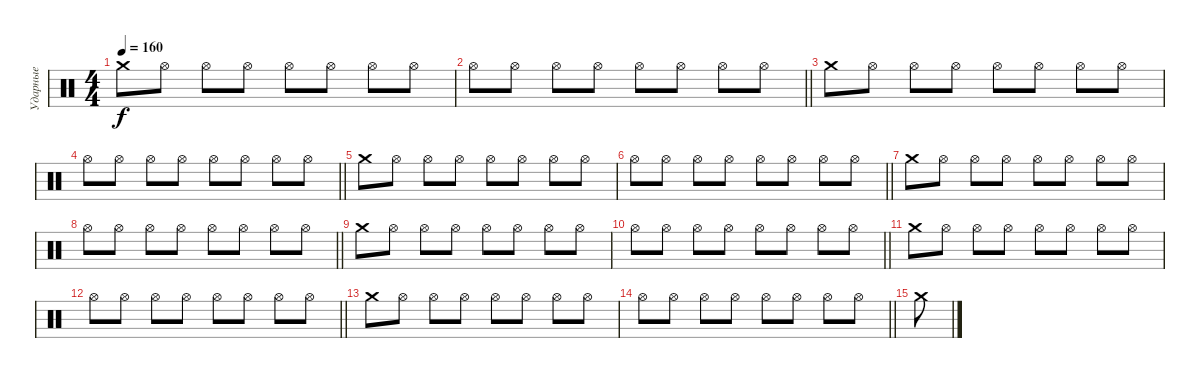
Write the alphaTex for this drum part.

\track ("Ударные" "Ударные") {instrument percussion}
\staff {score}
\articulation defaults
\ts (4 4)
\tempo 160
\clef neutral
\ks c "Crash medium (hit)".8{dy f} "Hi-Hat (open)".8 "Hi-Hat (open)".8 "Hi-Hat (open)".8 "Hi-Hat (open)".8 "Hi-Hat (open)".8 "Hi-Hat (open)".8 "Hi-Hat (open)".8
|
\barLineRight lightlight "Hi-Hat (open)".8 "Hi-Hat (open)".8 "Hi-Hat (open)".8 "Hi-Hat (open)".8 "Hi-Hat (open)".8 "Hi-Hat (open)".8 "Hi-Hat (open)".8 "Hi-Hat (open)".8
|
"Crash medium (hit)".8 "Hi-Hat (open)".8 "Hi-Hat (open)".8 "Hi-Hat (open)".8 "Hi-Hat (open)".8 "Hi-Hat (open)".8 "Hi-Hat (open)".8 "Hi-Hat (open)".8 |
\barLineRight lightlight "Hi-Hat (open)".8 "Hi-Hat (open)".8 "Hi-Hat (open)".8 "Hi-Hat (open)".8 "Hi-Hat (open)".8 "Hi-Hat (open)".8 "Hi-Hat (open)".8 "Hi-Hat (open)".8
|
"Crash medium (hit)".8 "Hi-Hat (open)".8 "Hi-Hat (open)".8 "Hi-Hat (open)".8 "Hi-Hat (open)".8 "Hi-Hat (open)".8 "Hi-Hat (open)".8 "Hi-Hat (open)".8 |
\barLineRight lightlight "Hi-Hat (open)".8 "Hi-Hat (open)".8 "Hi-Hat (open)".8 "Hi-Hat (open)".8 "Hi-Hat (open)".8 "Hi-Hat (open)".8 "Hi-Hat (open)".8 "Hi-Hat (open)".8
|
"Crash medium (hit)".8 "Hi-Hat (open)".8 "Hi-Hat (open)".8 "Hi-Hat (open)".8 "Hi-Hat (open)".8 "Hi-Hat (open)".8 "Hi-Hat (open)".8 "Hi-Hat (open)".8 |
\barLineRight lightlight "Hi-Hat (open)".8 "Hi-Hat (open)".8 "Hi-Hat (open)".8 "Hi-Hat (open)".8 "Hi-Hat (open)".8 "Hi-Hat (open)".8 "Hi-Hat (open)".8 "Hi-Hat (open)".8
|
"Crash medium (hit)".8 "Hi-Hat (open)".8 "Hi-Hat (open)".8 "Hi-Hat (open)".8 "Hi-Hat (open)".8 "Hi-Hat (open)".8 "Hi-Hat (open)".8 "Hi-Hat (open)".8 |
\barLineRight lightlight "Hi-Hat (open)".8 "Hi-Hat (open)".8 "Hi-Hat (open)".8 "Hi-Hat (open)".8 "Hi-Hat (open)".8 "Hi-Hat (open)".8 "Hi-Hat (open)".8 "Hi-Hat (open)".8
|
"Crash medium (hit)".8 "Hi-Hat (open)".8 "Hi-Hat (open)".8 "Hi-Hat (open)".8 "Hi-Hat (open)".8 "Hi-Hat (open)".8 "Hi-Hat (open)".8 "Hi-Hat (open)".8 |
\barLineRight lightlight "Hi-Hat (open)".8 "Hi-Hat (open)".8 "Hi-Hat (open)".8 "Hi-Hat (open)".8 "Hi-Hat (open)".8 "Hi-Hat (open)".8 "Hi-Hat (open)".8 "Hi-Hat (open)".8
|
"Crash medium (hit)".8 "Hi-Hat (open)".8 "Hi-Hat (open)".8 "Hi-Hat (open)".8 "Hi-Hat (open)".8 "Hi-Hat (open)".8 "Hi-Hat (open)".8 "Hi-Hat (open)".8 |
\barLineRight lightlight "Hi-Hat (open)".8 "Hi-Hat (open)".8 "Hi-Hat (open)".8 "Hi-Hat (open)".8 "Hi-Hat (open)".8 "Hi-Hat (open)".8 "Hi-Hat (open)".8 "Hi-Hat (open)".8
|
"Crash medium (hit)".8
